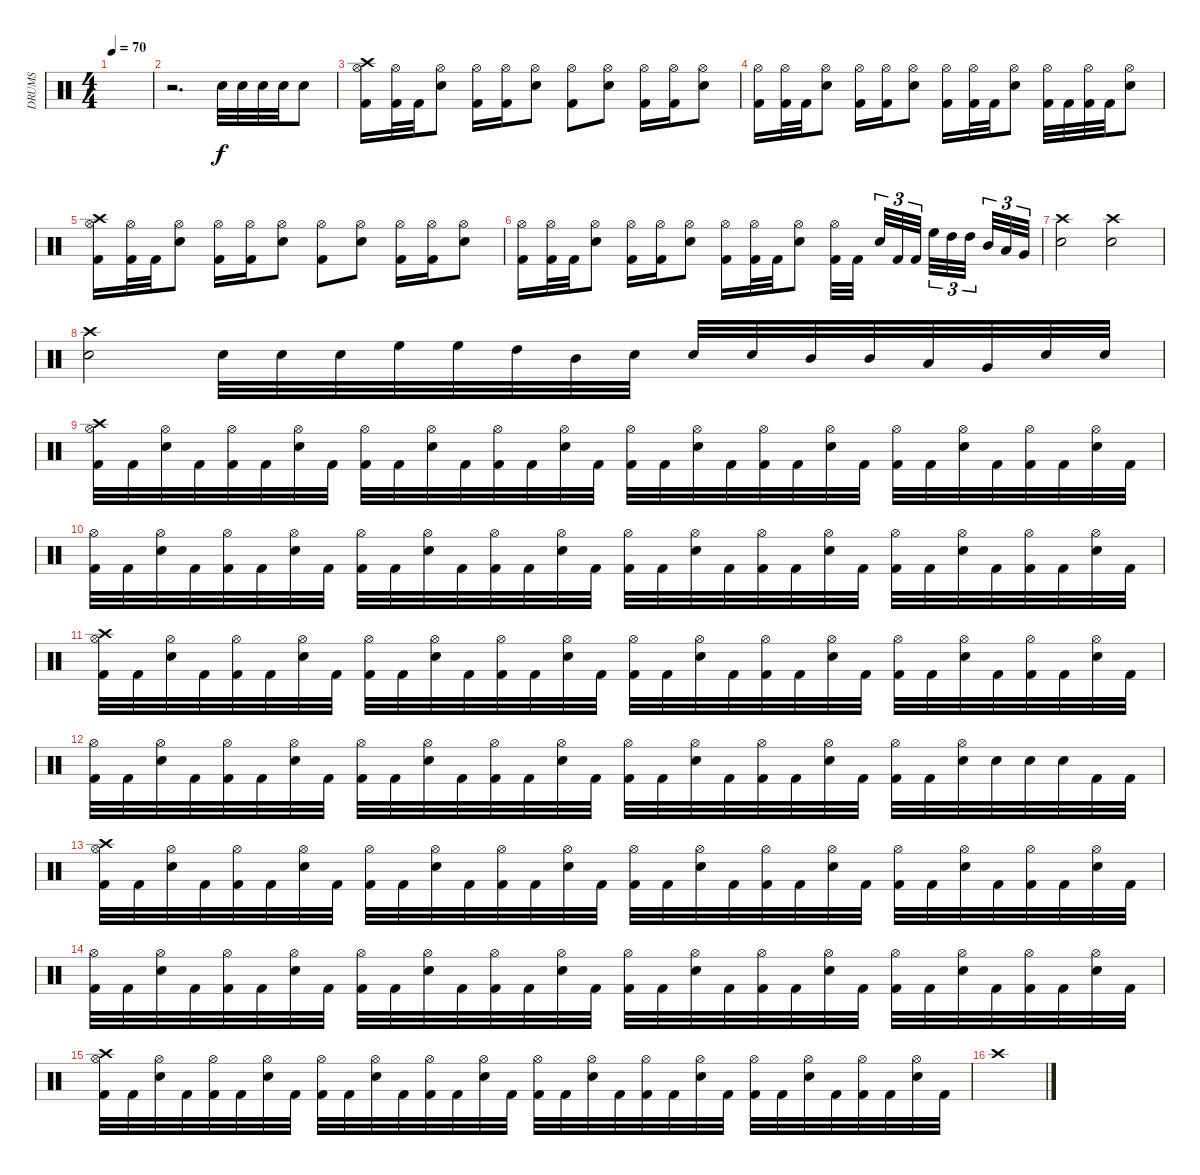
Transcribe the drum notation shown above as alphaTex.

\track ("DRUMS" "DRUMS") {instrument percussion}
\staff {score}
\articulation defaults
\ts (4 4)
\tempo 70
\clef neutral
\ks c
|
r.2{d} "Snare (hit) 2".32 "Snare (hit) 2".32 "Snare (hit) 2".32 "Snare (hit) 2".32 "Snare (hit) 2".8 |
("Hi-Hat (open)" "Crash high (hit)" "Kick (hit) 2").16 ("Hi-Hat (open)" "Kick (hit) 2").32 "Kick (hit) 2".32 ("Hi-Hat (open)" "Snare (hit) 2").8 ("Hi-Hat (open)" "Kick (hit) 2").16 ("Hi-Hat (open)" "Kick (hit) 2").16 ("Hi-Hat (open)" "Snare (hit) 2").8 ("Hi-Hat (open)" "Kick (hit) 2").8 ("Hi-Hat (open)" "Snare (hit) 2").8 ("Hi-Hat (open)" "Kick (hit) 2").16 ("Hi-Hat (open)" "Kick (hit) 2").16 ("Hi-Hat (open)" "Snare (hit) 2").8 |
("Hi-Hat (open)" "Kick (hit) 2").16 ("Hi-Hat (open)" "Kick (hit) 2").32 "Kick (hit) 2".32 ("Hi-Hat (open)" "Snare (hit) 2").8 ("Hi-Hat (open)" "Kick (hit) 2").16 ("Hi-Hat (open)" "Kick (hit) 2").16 ("Hi-Hat (open)" "Snare (hit) 2").8 ("Hi-Hat (open)" "Kick (hit) 2").16 ("Hi-Hat (open)" "Kick (hit) 2").32 "Kick (hit) 2".32 ("Hi-Hat (open)" "Snare (hit) 2").8 ("Hi-Hat (open)" "Kick (hit) 2").32 "Kick (hit) 2".32 ("Hi-Hat (open)" "Kick (hit) 2").32 "Kick (hit) 2".32 ("Hi-Hat (open)" "Snare (hit) 2").8 |
("Hi-Hat (open)" "Crash high (hit)" "Kick (hit) 2").16 ("Hi-Hat (open)" "Kick (hit) 2").32 "Kick (hit) 2".32 ("Hi-Hat (open)" "Snare (hit) 2").8 ("Hi-Hat (open)" "Kick (hit) 2").16 ("Hi-Hat (open)" "Kick (hit) 2").16 ("Hi-Hat (open)" "Snare (hit) 2").8 ("Hi-Hat (open)" "Kick (hit) 2").8 ("Hi-Hat (open)" "Snare (hit) 2").8 ("Hi-Hat (open)" "Kick (hit) 2").16 ("Hi-Hat (open)" "Kick (hit) 2").16 ("Hi-Hat (open)" "Snare (hit) 2").8 |
("Hi-Hat (open)" "Kick (hit) 2").16 ("Hi-Hat (open)" "Kick (hit) 2").32 "Kick (hit) 2".32 ("Hi-Hat (open)" "Snare (hit) 2").8 ("Hi-Hat (open)" "Kick (hit) 2").16 ("Hi-Hat (open)" "Kick (hit) 2").16 ("Hi-Hat (open)" "Snare (hit) 2").8 ("Hi-Hat (open)" "Kick (hit) 2").16 ("Hi-Hat (open)" "Kick (hit) 2").32 "Kick (hit) 2".32 ("Hi-Hat (open)" "Snare (hit) 2").8 ("Hi-Hat (open)" "Kick (hit) 2").32 "Kick (hit) 2".32{beam splitsecondary} "Snare (hit) 2".32{tu (3 2)} "Kick (hit) 2".32{tu (3 2)} "Kick (hit) 2".32{tu (3 2) beam splitsecondary} "High Floor Tom (hit)".32{tu (3 2)} "High Tom (hit)".32{tu (3 2)} "High Tom (hit)".32{tu (3 2) beam splitsecondary} "Mid Tom (hit)".32{tu (3 2)} "Low Tom (hit)".32{tu (3 2)} "Very Low Tom (hit)".32{tu (3 2)} |
("Crash high (hit)" "Snare (hit) 2").2 ("Crash high (hit)" "Snare (hit) 2").2 |
("Crash high (hit)" "Snare (hit) 2").2 "Snare (hit) 2".32 "Snare (hit) 2".32 "Snare (hit) 2".32 "High Floor Tom (hit)".32 "High Floor Tom (hit)".32 "High Tom (hit)".32 "Mid Tom (hit)".32 "Snare (hit) 2".32 "Snare (hit) 2".32 "Snare (hit) 2".32 "Mid Tom (hit)".32 "Mid Tom (hit)".32 "Low Tom (hit)".32 "Very Low Tom (hit)".32 "Snare (hit) 2".32 "Snare (hit) 2".32 |
("Hi-Hat (open)" "Crash high (hit)" "Kick (hit) 2").32 "Kick (hit) 2".32 ("Hi-Hat (open)" "Snare (hit) 2").32 "Kick (hit) 2".32 ("Hi-Hat (open)" "Kick (hit) 2").32 "Kick (hit) 2".32 ("Hi-Hat (open)" "Snare (hit) 2").32 "Kick (hit) 2".32 ("Hi-Hat (open)" "Kick (hit) 2").32 "Kick (hit) 2".32 ("Hi-Hat (open)" "Snare (hit) 2").32 "Kick (hit) 2".32 ("Hi-Hat (open)" "Kick (hit) 2").32 "Kick (hit) 2".32 ("Hi-Hat (open)" "Snare (hit) 2").32 "Kick (hit) 2".32 ("Hi-Hat (open)" "Kick (hit) 2").32 "Kick (hit) 2".32 ("Hi-Hat (open)" "Snare (hit) 2").32 "Kick (hit) 2".32 ("Hi-Hat (open)" "Kick (hit) 2").32 "Kick (hit) 2".32 ("Hi-Hat (open)" "Snare (hit) 2").32 "Kick (hit) 2".32 ("Hi-Hat (open)" "Kick (hit) 2").32 "Kick (hit) 2".32 ("Hi-Hat (open)" "Snare (hit) 2").32 "Kick (hit) 2".32 ("Hi-Hat (open)" "Kick (hit) 2").32 "Kick (hit) 2".32 ("Hi-Hat (open)" "Snare (hit) 2").32 "Kick (hit) 2".32 |
("Hi-Hat (open)" "Kick (hit) 2").32 "Kick (hit) 2".32 ("Hi-Hat (open)" "Snare (hit) 2").32 "Kick (hit) 2".32 ("Hi-Hat (open)" "Kick (hit) 2").32 "Kick (hit) 2".32 ("Hi-Hat (open)" "Snare (hit) 2").32 "Kick (hit) 2".32 ("Hi-Hat (open)" "Kick (hit) 2").32 "Kick (hit) 2".32 ("Hi-Hat (open)" "Snare (hit) 2").32 "Kick (hit) 2".32 ("Hi-Hat (open)" "Kick (hit) 2").32 "Kick (hit) 2".32 ("Hi-Hat (open)" "Snare (hit) 2").32 "Kick (hit) 2".32 ("Hi-Hat (open)" "Kick (hit) 2").32 "Kick (hit) 2".32 ("Hi-Hat (open)" "Snare (hit) 2").32 "Kick (hit) 2".32 ("Hi-Hat (open)" "Kick (hit) 2").32 "Kick (hit) 2".32 ("Hi-Hat (open)" "Snare (hit) 2").32 "Kick (hit) 2".32 ("Hi-Hat (open)" "Kick (hit) 2").32 "Kick (hit) 2".32 ("Hi-Hat (open)" "Snare (hit) 2").32 "Kick (hit) 2".32 ("Hi-Hat (open)" "Kick (hit) 2").32 "Kick (hit) 2".32 ("Hi-Hat (open)" "Snare (hit) 2").32 "Kick (hit) 2".32 |
("Hi-Hat (open)" "Crash high (hit)" "Kick (hit) 2").32 "Kick (hit) 2".32 ("Hi-Hat (open)" "Snare (hit) 2").32 "Kick (hit) 2".32 ("Hi-Hat (open)" "Kick (hit) 2").32 "Kick (hit) 2".32 ("Hi-Hat (open)" "Snare (hit) 2").32 "Kick (hit) 2".32 ("Hi-Hat (open)" "Kick (hit) 2").32 "Kick (hit) 2".32 ("Hi-Hat (open)" "Snare (hit) 2").32 "Kick (hit) 2".32 ("Hi-Hat (open)" "Kick (hit) 2").32 "Kick (hit) 2".32 ("Hi-Hat (open)" "Snare (hit) 2").32 "Kick (hit) 2".32 ("Hi-Hat (open)" "Kick (hit) 2").32 "Kick (hit) 2".32 ("Hi-Hat (open)" "Snare (hit) 2").32 "Kick (hit) 2".32 ("Hi-Hat (open)" "Kick (hit) 2").32 "Kick (hit) 2".32 ("Hi-Hat (open)" "Snare (hit) 2").32 "Kick (hit) 2".32 ("Hi-Hat (open)" "Kick (hit) 2").32 "Kick (hit) 2".32 ("Hi-Hat (open)" "Snare (hit) 2").32 "Kick (hit) 2".32 ("Hi-Hat (open)" "Kick (hit) 2").32 "Kick (hit) 2".32 ("Hi-Hat (open)" "Snare (hit) 2").32 "Kick (hit) 2".32 |
("Hi-Hat (open)" "Kick (hit) 2").32 "Kick (hit) 2".32 ("Hi-Hat (open)" "Snare (hit) 2").32 "Kick (hit) 2".32 ("Hi-Hat (open)" "Kick (hit) 2").32 "Kick (hit) 2".32 ("Hi-Hat (open)" "Snare (hit) 2").32 "Kick (hit) 2".32 ("Hi-Hat (open)" "Kick (hit) 2").32 "Kick (hit) 2".32 ("Hi-Hat (open)" "Snare (hit) 2").32 "Kick (hit) 2".32 ("Hi-Hat (open)" "Kick (hit) 2").32 "Kick (hit) 2".32 ("Hi-Hat (open)" "Snare (hit) 2").32 "Kick (hit) 2".32 ("Hi-Hat (open)" "Kick (hit) 2").32 "Kick (hit) 2".32 ("Hi-Hat (open)" "Snare (hit) 2").32 "Kick (hit) 2".32 ("Hi-Hat (open)" "Kick (hit) 2").32 "Kick (hit) 2".32 ("Hi-Hat (open)" "Snare (hit) 2").32 "Kick (hit) 2".32 ("Hi-Hat (open)" "Kick (hit) 2").32 "Kick (hit) 2".32 ("Hi-Hat (open)" "Snare (hit) 2").32 "Snare (hit) 2".32 "Snare (hit) 2".32 "Snare (hit) 2".32 "Kick (hit) 2".32 "Kick (hit) 2".32 |
("Hi-Hat (open)" "Crash high (hit)" "Kick (hit) 2").32 "Kick (hit) 2".32 ("Hi-Hat (open)" "Snare (hit) 2").32 "Kick (hit) 2".32 ("Hi-Hat (open)" "Kick (hit) 2").32 "Kick (hit) 2".32 ("Hi-Hat (open)" "Snare (hit) 2").32 "Kick (hit) 2".32 ("Hi-Hat (open)" "Kick (hit) 2").32 "Kick (hit) 2".32 ("Hi-Hat (open)" "Snare (hit) 2").32 "Kick (hit) 2".32 ("Hi-Hat (open)" "Kick (hit) 2").32 "Kick (hit) 2".32 ("Hi-Hat (open)" "Snare (hit) 2").32 "Kick (hit) 2".32 ("Hi-Hat (open)" "Kick (hit) 2").32 "Kick (hit) 2".32 ("Hi-Hat (open)" "Snare (hit) 2").32 "Kick (hit) 2".32 ("Hi-Hat (open)" "Kick (hit) 2").32 "Kick (hit) 2".32 ("Hi-Hat (open)" "Snare (hit) 2").32 "Kick (hit) 2".32 ("Hi-Hat (open)" "Kick (hit) 2").32 "Kick (hit) 2".32 ("Hi-Hat (open)" "Snare (hit) 2").32 "Kick (hit) 2".32 ("Hi-Hat (open)" "Kick (hit) 2").32 "Kick (hit) 2".32 ("Hi-Hat (open)" "Snare (hit) 2").32 "Kick (hit) 2".32 |
("Hi-Hat (open)" "Kick (hit) 2").32 "Kick (hit) 2".32 ("Hi-Hat (open)" "Snare (hit) 2").32 "Kick (hit) 2".32 ("Hi-Hat (open)" "Kick (hit) 2").32 "Kick (hit) 2".32 ("Hi-Hat (open)" "Snare (hit) 2").32 "Kick (hit) 2".32 ("Hi-Hat (open)" "Kick (hit) 2").32 "Kick (hit) 2".32 ("Hi-Hat (open)" "Snare (hit) 2").32 "Kick (hit) 2".32 ("Hi-Hat (open)" "Kick (hit) 2").32 "Kick (hit) 2".32 ("Hi-Hat (open)" "Snare (hit) 2").32 "Kick (hit) 2".32 ("Hi-Hat (open)" "Kick (hit) 2").32 "Kick (hit) 2".32 ("Hi-Hat (open)" "Snare (hit) 2").32 "Kick (hit) 2".32 ("Hi-Hat (open)" "Kick (hit) 2").32 "Kick (hit) 2".32 ("Hi-Hat (open)" "Snare (hit) 2").32 "Kick (hit) 2".32 ("Hi-Hat (open)" "Kick (hit) 2").32 "Kick (hit) 2".32 ("Hi-Hat (open)" "Snare (hit) 2").32 "Kick (hit) 2".32 ("Hi-Hat (open)" "Kick (hit) 2").32 "Kick (hit) 2".32 ("Hi-Hat (open)" "Snare (hit) 2").32 "Kick (hit) 2".32 |
("Hi-Hat (open)" "Crash high (hit)" "Kick (hit) 2").32 "Kick (hit) 2".32 ("Hi-Hat (open)" "Snare (hit) 2").32 "Kick (hit) 2".32 ("Hi-Hat (open)" "Kick (hit) 2").32 "Kick (hit) 2".32 ("Hi-Hat (open)" "Snare (hit) 2").32 "Kick (hit) 2".32 ("Hi-Hat (open)" "Kick (hit) 2").32 "Kick (hit) 2".32 ("Hi-Hat (open)" "Snare (hit) 2").32 "Kick (hit) 2".32 ("Hi-Hat (open)" "Kick (hit) 2").32 "Kick (hit) 2".32 ("Hi-Hat (open)" "Snare (hit) 2").32 "Kick (hit) 2".32 ("Hi-Hat (open)" "Kick (hit) 2").32 "Kick (hit) 2".32 ("Hi-Hat (open)" "Snare (hit) 2").32 "Kick (hit) 2".32 ("Hi-Hat (open)" "Kick (hit) 2").32 "Kick (hit) 2".32 ("Hi-Hat (open)" "Snare (hit) 2").32 "Kick (hit) 2".32 ("Hi-Hat (open)" "Kick (hit) 2").32 "Kick (hit) 2".32 ("Hi-Hat (open)" "Snare (hit) 2").32 "Kick (hit) 2".32 ("Hi-Hat (open)" "Kick (hit) 2").32 "Kick (hit) 2".32 ("Hi-Hat (open)" "Snare (hit) 2").32 "Kick (hit) 2".32 |
"Crash high (hit)".1
